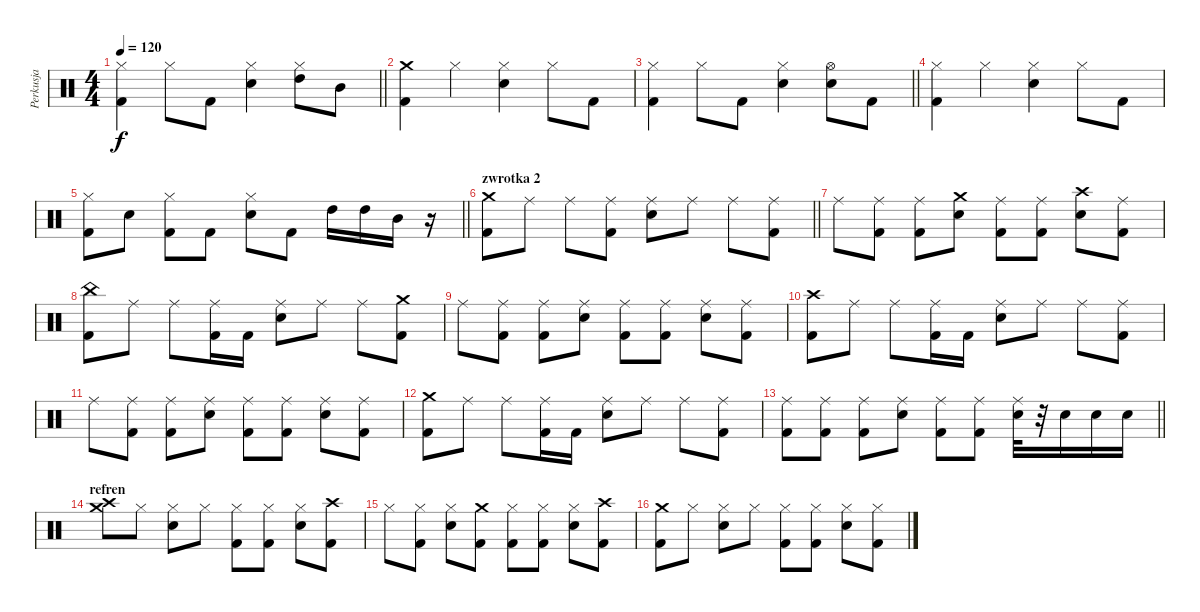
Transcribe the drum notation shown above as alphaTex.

\track ("Perkusja" "Perkusja") {instrument percussion}
\staff {score}
\articulation defaults
\ts (4 4)
\tempo 120
\clef neutral
\barLineRight lightlight
\ks c
("Hi-Hat (closed)" "Kick (hit) 2").4{dy f} "Hi-Hat (closed)".8 "Kick (hit) 2".8 ("Hi-Hat (closed)" "Snare (hit) 2").4 ("Hi-Hat (closed)" "High Tom (hit)").8 "Mid Tom (hit)".8 |
("Crash medium (hit)" "Kick (hit) 2").4 "Hi-Hat (closed)".4 ("Hi-Hat (closed)" "Snare (hit) 2").4 "Hi-Hat (closed)".8 "Kick (hit) 2".8 |
\barLineRight lightlight
("Hi-Hat (closed)" "Kick (hit) 2").4 "Hi-Hat (closed)".8 "Kick (hit) 2".8 ("Hi-Hat (closed)" "Snare (hit) 2").4 ("Hi-Hat (open)" "Snare (hit) 2").8 "Kick (hit) 2".8 |
("Hi-Hat (closed)" "Kick (hit) 2").4 "Hi-Hat (closed)".4 ("Hi-Hat (closed)" "Snare (hit) 2").4 "Hi-Hat (closed)".8 "Kick (hit) 2".8 |
\barLineRight lightlight
("Hi-Hat (closed)" "Kick (hit) 2").8 "Snare (hit) 2".8 ("Hi-Hat (closed)" "Kick (hit) 2").8 "Kick (hit) 2".8 ("Hi-Hat (closed)" "Snare (hit) 2").8 "Kick (hit) 2".8 "High Tom (hit)".16 "High Tom (hit)".16 "Mid Tom (hit)".16 r.16 |
\section ("" "zwrotka 2")
\barLineRight lightlight
("Crash medium (hit)" "Kick (hit) 2").8 "Ride (middle)".8 "Ride (middle)".8 ("Ride (middle)" "Kick (hit) 2").8 ("Ride (middle)" "Snare (hit) 2").8 "Ride (middle)".8 "Ride (middle)".8 ("Ride (middle)" "Kick (hit) 2").8 |
\section ("" "")
"Ride (middle)".8 ("Ride (middle)" "Kick (hit) 2").8 ("Ride (middle)" "Kick (hit) 2").8 ("Crash medium (hit)" "Snare (hit) 2").8 ("Ride (middle)" "Kick (hit) 2").8 ("Ride (middle)" "Kick (hit) 2").8 ("Crash high (hit)" "Snare (hit) 2").8 ("Ride (middle)" "Kick (hit) 2").8 |
("China (hit)" "Kick (hit) 2").8 "Ride (middle)".8 "Ride (middle)".8 ("Ride (middle)" "Kick (hit) 2").16 "Kick (hit) 2".16 ("Ride (middle)" "Snare (hit) 2").8 "Ride (middle)".8 "Ride (middle)".8 ("Crash medium (hit)" "Kick (hit) 2").8 |
"Ride (middle)".8 ("Ride (middle)" "Kick (hit) 2").8 ("Ride (middle)" "Kick (hit) 2").8 ("Ride (middle)" "Snare (hit) 2").8 ("Ride (middle)" "Kick (hit) 2").8 ("Ride (middle)" "Kick (hit) 2").8 ("Ride (middle)" "Snare (hit) 2").8 ("Ride (middle)" "Kick (hit) 2").8 |
("Crash high (hit)" "Kick (hit) 2").8 "Ride (middle)".8 "Ride (middle)".8 ("Ride (middle)" "Kick (hit) 2").16 "Kick (hit) 2".16 ("Ride (middle)" "Snare (hit) 2").8 "Ride (middle)".8 "Ride (middle)".8 ("Ride (middle)" "Kick (hit) 2").8 |
"Ride (middle)".8 ("Ride (middle)" "Kick (hit) 2").8 ("Ride (middle)" "Kick (hit) 2").8 ("Ride (middle)" "Snare (hit) 2").8 ("Ride (middle)" "Kick (hit) 2").8 ("Ride (middle)" "Kick (hit) 2").8 ("Ride (middle)" "Snare (hit) 2").8 ("Ride (middle)" "Kick (hit) 2").8 |
("Crash medium (hit)" "Kick (hit) 2").8 "Ride (middle)".8 "Ride (middle)".8 ("Ride (middle)" "Kick (hit) 2").16 "Kick (hit) 2".16 ("Ride (middle)" "Snare (hit) 2").8 "Ride (middle)".8 "Ride (middle)".8 ("Ride (middle)" "Kick (hit) 2").8 |
\barLineRight lightlight
("Ride (middle)" "Kick (hit) 2").8 ("Ride (middle)" "Kick (hit) 2").8 ("Ride (middle)" "Kick (hit) 2").8 ("Ride (middle)" "Snare (hit) 2").8 ("Ride (middle)" "Kick (hit) 2").8 ("Ride (middle)" "Kick (hit) 2").8 ("Ride (middle)" "Snare (hit) 2").32 r.32 "Snare (hit) 2".16 "Snare (hit) 2".16 "Snare (hit) 2".16 |
\section ("" "refren")
("Crash high (hit)" "Crash medium (hit)").8 "Hi-Hat (closed)".8 ("Hi-Hat (closed)" "Snare (hit) 2").8 "Hi-Hat (closed)".8 ("Hi-Hat (closed)" "Kick (hit) 2").8 ("Hi-Hat (closed)" "Kick (hit) 2").8 ("Hi-Hat (closed)" "Snare (hit) 2").8 ("Crash high (hit)" "Kick (hit) 2").8 |
"Hi-Hat (closed)".8 ("Hi-Hat (closed)" "Kick (hit) 2").8 ("Hi-Hat (closed)" "Snare (hit) 2").8 ("Crash medium (hit)" "Kick (hit) 2").8 ("Hi-Hat (closed)" "Kick (hit) 2").8 ("Hi-Hat (closed)" "Kick (hit) 2").8 ("Hi-Hat (closed)" "Snare (hit) 2").8 ("Crash high (hit)" "Kick (hit) 2").8 |
("Crash medium (hit)" "Kick (hit) 2").8 "Hi-Hat (closed)".8 ("Hi-Hat (closed)" "Snare (hit) 2").8 "Hi-Hat (closed)".8 ("Hi-Hat (closed)" "Kick (hit) 2").8 ("Hi-Hat (closed)" "Kick (hit) 2").8 ("Hi-Hat (closed)" "Snare (hit) 2").8 ("Hi-Hat (closed)" "Kick (hit) 2").8
